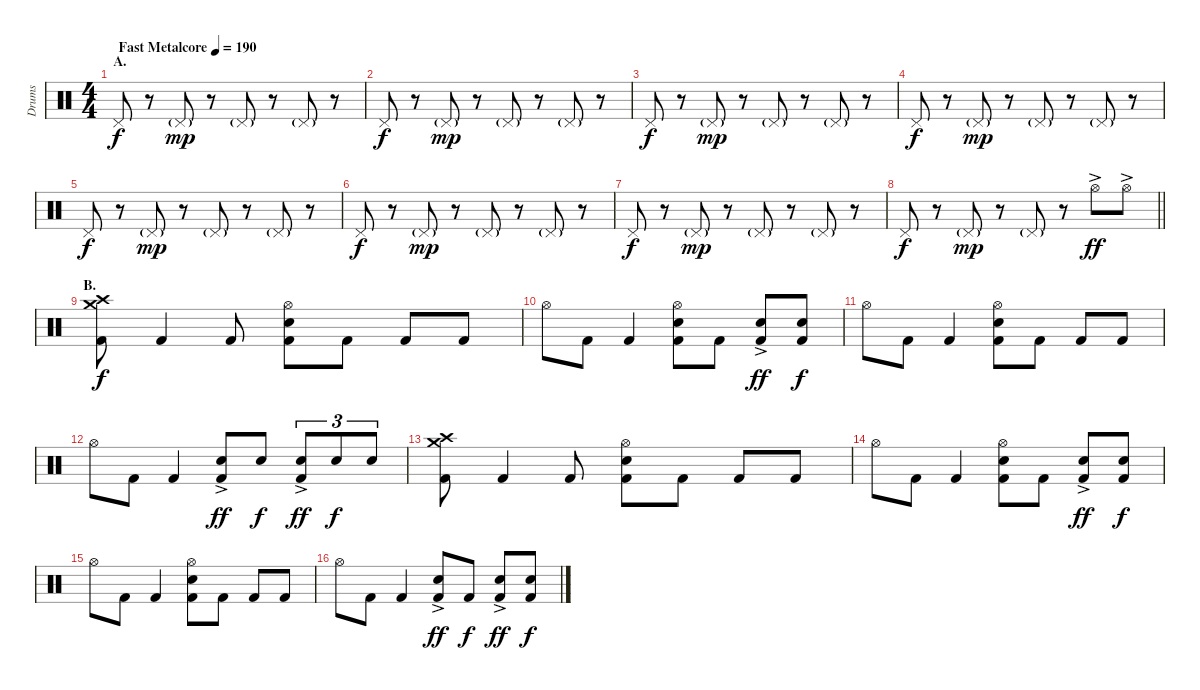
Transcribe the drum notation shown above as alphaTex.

\track ("Drums" "Drums") {instrument percussion}
\staff {score}
\articulation defaults
\ts (4 4)
\section ("" "A.")
\tempo (190 "Fast Metalcore")
\clef neutral
\ks c "Pedal Hi-Hat (hit)".8{dy f}
r.8 "Pedal Hi-Hat (hit)"{g}.8{dy mp} r.8 "Pedal Hi-Hat (hit)"{g}.8 r.8 "Pedal Hi-Hat (hit)"{g}.8 r.8 |
"Pedal Hi-Hat (hit)".8{dy f} r.8 "Pedal Hi-Hat (hit)"{g}.8{dy mp} r.8 "Pedal Hi-Hat (hit)"{g}.8 r.8 "Pedal Hi-Hat (hit)"{g}.8 r.8 |
"Pedal Hi-Hat (hit)".8{dy f} r.8 "Pedal Hi-Hat (hit)"{g}.8{dy mp} r.8 "Pedal Hi-Hat (hit)"{g}.8 r.8 "Pedal Hi-Hat (hit)"{g}.8 r.8 |
"Pedal Hi-Hat (hit)".8{dy f} r.8 "Pedal Hi-Hat (hit)"{g}.8{dy mp} r.8 "Pedal Hi-Hat (hit)"{g}.8 r.8 "Pedal Hi-Hat (hit)"{g}.8 r.8 |
"Pedal Hi-Hat (hit)".8{dy f} r.8 "Pedal Hi-Hat (hit)"{g}.8{dy mp} r.8 "Pedal Hi-Hat (hit)"{g}.8 r.8 "Pedal Hi-Hat (hit)"{g}.8 r.8 |
"Pedal Hi-Hat (hit)".8{dy f} r.8 "Pedal Hi-Hat (hit)"{g}.8{dy mp} r.8 "Pedal Hi-Hat (hit)"{g}.8 r.8 "Pedal Hi-Hat (hit)"{g}.8 r.8 |
"Pedal Hi-Hat (hit)".8{dy f} r.8 "Pedal Hi-Hat (hit)"{g}.8{dy mp} r.8 "Pedal Hi-Hat (hit)"{g}.8 r.8 "Pedal Hi-Hat (hit)"{g}.8 r.8 |
\barLineRight lightlight "Pedal Hi-Hat (hit)".8{dy f}
r.8 "Pedal Hi-Hat (hit)"{g}.8{dy mp} r.8 "Pedal Hi-Hat (hit)"{g}.8 r.8 "Hi-Hat (open)"{ac}.8{dy ff} "Hi-Hat (open)"{ac}.8 |
\section ("" "B.")
("Crash medium (hit)" "Crash high (hit)" "Kick (hit) 2").8{dy f} "Kick (hit) 2".4 "Kick (hit) 2".8 ("Hi-Hat (open)" "Electric Snare (hit)" "Kick (hit) 2").8 "Kick (hit) 2".8 "Kick (hit) 2".8 "Kick (hit) 2".8 |
"Hi-Hat (open)".8 "Kick (hit) 2".8 "Kick (hit) 2".4 ("Hi-Hat (open)" "Electric Snare (hit)" "Kick (hit) 2").8 "Kick (hit) 2".8 ("Electric Snare (hit)"{ac} "Kick (hit) 2").8{dy ff} ("Electric Snare (hit)" "Kick (hit) 2").8{dy f} |
"Hi-Hat (open)".8 "Kick (hit) 2".8 "Kick (hit) 2".4 ("Hi-Hat (open)" "Electric Snare (hit)" "Kick (hit) 2").8 "Kick (hit) 2".8 "Kick (hit) 2".8 "Kick (hit) 2".8 |
"Hi-Hat (open)".8 "Kick (hit) 2".8 "Kick (hit) 2".4 ("Electric Snare (hit)"{ac} "Kick (hit) 2").8{dy ff} "Electric Snare (hit)".8{dy f} ("Electric Snare (hit)"{ac} "Kick (hit) 2").8{tu (3 2) dy ff} "Electric Snare (hit)".8{tu (3 2) dy f} "Electric Snare (hit)".8{tu (3 2)} |
("Crash medium (hit)" "Crash high (hit)" "Kick (hit) 2").8 "Kick (hit) 2".4 "Kick (hit) 2".8 ("Hi-Hat (open)" "Electric Snare (hit)" "Kick (hit) 2").8 "Kick (hit) 2".8 "Kick (hit) 2".8 "Kick (hit) 2".8 |
"Hi-Hat (open)".8 "Kick (hit) 2".8 "Kick (hit) 2".4 ("Hi-Hat (open)" "Electric Snare (hit)" "Kick (hit) 2").8 "Kick (hit) 2".8 ("Electric Snare (hit)"{ac} "Kick (hit) 2").8{dy ff} ("Electric Snare (hit)" "Kick (hit) 2").8{dy f} |
"Hi-Hat (open)".8 "Kick (hit) 2".8 "Kick (hit) 2".4 ("Hi-Hat (open)" "Electric Snare (hit)" "Kick (hit) 2").8 "Kick (hit) 2".8 "Kick (hit) 2".8 "Kick (hit) 2".8 |
"Hi-Hat (open)".8 "Kick (hit) 2".8 "Kick (hit) 2".4 ("Electric Snare (hit)"{ac} "Kick (hit) 2").8{dy ff} "Kick (hit) 2".8{dy f} ("Electric Snare (hit)"{ac} "Kick (hit) 2").8{dy ff} ("Electric Snare (hit)" "Kick (hit) 2").8{dy f}
